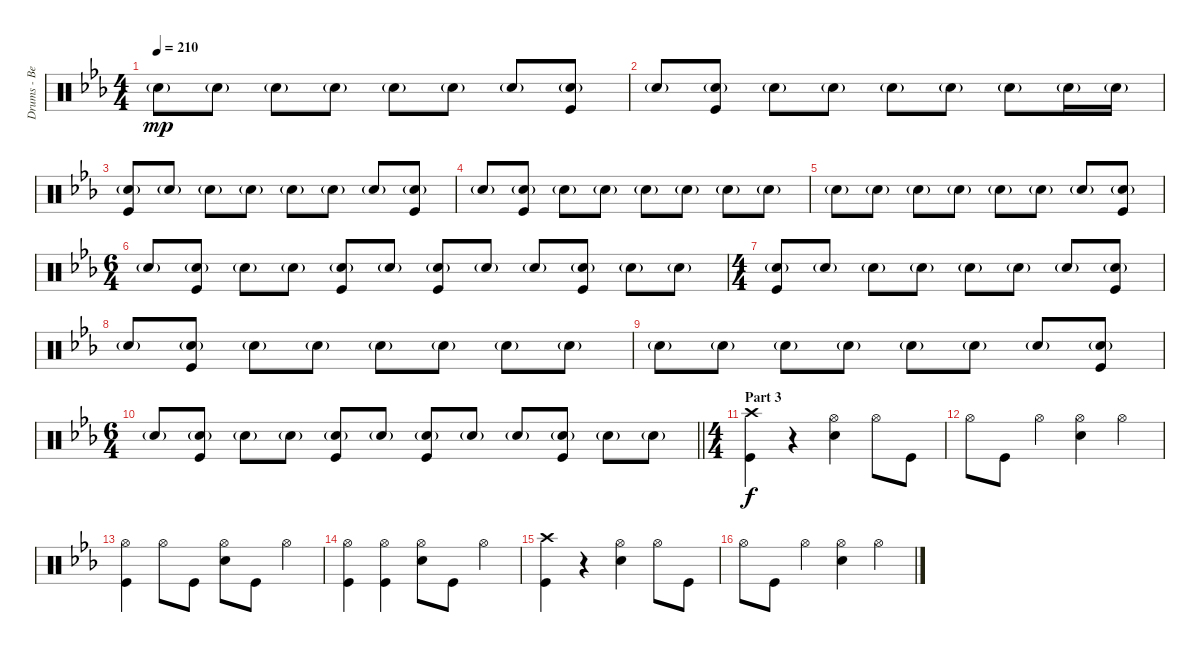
\track ("Drums - Ben Johnston" "Drums - Be") {instrument percussion}
\staff {score}
\articulation defaults
\ts (4 4)
\tempo 210
\clef neutral
\ks cminor "Snare (hit) 2"{g}.8{dy mp} "Snare (hit) 2"{g}.8 "Snare (hit) 2"{g}.8 "Snare (hit) 2"{g}.8 "Snare (hit) 2"{g}.8 "Snare (hit) 2"{g}.8 "Snare (hit) 2"{g}.8
("Snare (hit) 2"{g} "Kick (hit)").8 |
"Snare (hit) 2"{g}.8 ("Snare (hit) 2"{g} "Kick (hit)").8 "Snare (hit) 2"{g}.8 "Snare (hit) 2"{g}.8 "Snare (hit) 2"{g}.8 "Snare (hit) 2"{g}.8 "Snare (hit) 2"{g}.8 "Snare (hit) 2"{g}.16 "Snare (hit) 2"{g}.16 |
("Snare (hit) 2"{g} "Kick (hit)").8 "Snare (hit) 2"{g}.8 "Snare (hit) 2"{g}.8 "Snare (hit) 2"{g}.8 "Snare (hit) 2"{g}.8 "Snare (hit) 2"{g}.8 "Snare (hit) 2"{g}.8 ("Snare (hit) 2"{g} "Kick (hit)").8 |
"Snare (hit) 2"{g}.8 ("Snare (hit) 2"{g} "Kick (hit)").8 "Snare (hit) 2"{g}.8 "Snare (hit) 2"{g}.8 "Snare (hit) 2"{g}.8 "Snare (hit) 2"{g}.8 "Snare (hit) 2"{g}.8 "Snare (hit) 2"{g}.8 |
"Snare (hit) 2"{g}.8 "Snare (hit) 2"{g}.8 "Snare (hit) 2"{g}.8 "Snare (hit) 2"{g}.8 "Snare (hit) 2"{g}.8 "Snare (hit) 2"{g}.8 "Snare (hit) 2"{g}.8 ("Snare (hit) 2"{g} "Kick (hit)").8 |
\ts (6 4)
"Snare (hit) 2"{g}.8 ("Snare (hit) 2"{g} "Kick (hit)").8 "Snare (hit) 2"{g}.8 "Snare (hit) 2"{g}.8 ("Snare (hit) 2"{g} "Kick (hit)").8 "Snare (hit) 2"{g}.8 ("Snare (hit) 2"{g} "Kick (hit)").8 "Snare (hit) 2"{g}.8 "Snare (hit) 2"{g}.8 ("Snare (hit) 2"{g} "Kick (hit)").8 "Snare (hit) 2"{g}.8 "Snare (hit) 2"{g}.8 |
\ts (4 4)
("Snare (hit) 2"{g} "Kick (hit)").8 "Snare (hit) 2"{g}.8 "Snare (hit) 2"{g}.8 "Snare (hit) 2"{g}.8 "Snare (hit) 2"{g}.8 "Snare (hit) 2"{g}.8 "Snare (hit) 2"{g}.8 ("Snare (hit) 2"{g} "Kick (hit)").8 |
"Snare (hit) 2"{g}.8 ("Snare (hit) 2"{g} "Kick (hit)").8 "Snare (hit) 2"{g}.8 "Snare (hit) 2"{g}.8 "Snare (hit) 2"{g}.8 "Snare (hit) 2"{g}.8 "Snare (hit) 2"{g}.8 "Snare (hit) 2"{g}.8 |
"Snare (hit) 2"{g}.8 "Snare (hit) 2"{g}.8 "Snare (hit) 2"{g}.8 "Snare (hit) 2"{g}.8 "Snare (hit) 2"{g}.8 "Snare (hit) 2"{g}.8 "Snare (hit) 2"{g}.8 ("Snare (hit) 2"{g} "Kick (hit)").8 |
\ts (6 4)
\barLineRight lightlight "Snare (hit) 2"{g}.8
("Snare (hit) 2"{g} "Kick (hit)").8 "Snare (hit) 2"{g}.8 "Snare (hit) 2"{g}.8 ("Snare (hit) 2"{g} "Kick (hit)").8 "Snare (hit) 2"{g}.8 ("Snare (hit) 2"{g} "Kick (hit)").8 "Snare (hit) 2"{g}.8 "Snare (hit) 2"{g}.8 ("Snare (hit) 2"{g} "Kick (hit)").8 "Snare (hit) 2"{g}.8 "Snare (hit) 2"{g}.8 |
\ts (4 4)
\section ("" "Part 3")
("Crash high (hit)" "Kick (hit)").4{dy f volume 13} r.4 ("Hi-Hat (open)" "Snare (hit) 2").4 "Hi-Hat (open)".8 "Kick (hit)".8 |
"Hi-Hat (open)".8 "Kick (hit)".8 "Hi-Hat (open)".4 ("Hi-Hat (open)" "Snare (hit) 2").4 "Hi-Hat (open)".4 |
("Hi-Hat (open)" "Kick (hit)").4 "Hi-Hat (open)".8 "Kick (hit)".8 ("Hi-Hat (open)" "Snare (hit) 2").8 "Kick (hit)".8 "Hi-Hat (open)".4 |
("Hi-Hat (open)" "Kick (hit)").4 ("Hi-Hat (open)" "Kick (hit)").4 ("Hi-Hat (open)" "Snare (hit) 2").8 "Kick (hit)".8 "Hi-Hat (open)".4 |
("Crash high (hit)" "Kick (hit)").4 r.4 ("Hi-Hat (open)" "Snare (hit) 2").4 "Hi-Hat (open)".8 "Kick (hit)".8 |
"Hi-Hat (open)".8 "Kick (hit)".8 "Hi-Hat (open)".4 ("Hi-Hat (open)" "Snare (hit) 2").4 "Hi-Hat (open)".4
